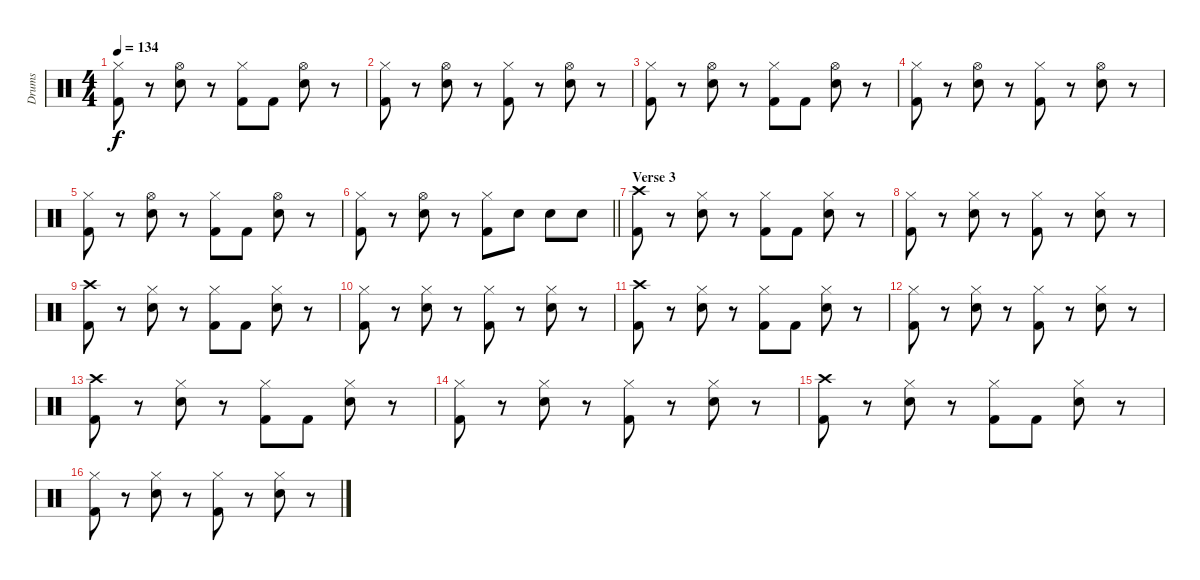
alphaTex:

\track ("Drums" "Drums") {instrument percussion}
\staff {score}
\articulation defaults
\ts (4 4)
\tempo 134
\clef neutral
\ks c
("Hi-Hat (closed)" "Kick (hit) 2").8{dy f} r.8 ("Hi-Hat (open)" "Snare (hit) 2").8 r.8 ("Hi-Hat (closed)" "Kick (hit) 2").8 "Kick (hit) 2".8 ("Hi-Hat (open)" "Snare (hit) 2").8 r.8 |
("Hi-Hat (closed)" "Kick (hit) 2").8 r.8 ("Hi-Hat (open)" "Snare (hit) 2").8 r.8 ("Hi-Hat (closed)" "Kick (hit) 2").8 r.8 ("Hi-Hat (open)" "Snare (hit) 2").8 r.8 |
("Hi-Hat (closed)" "Kick (hit) 2").8 r.8 ("Hi-Hat (open)" "Snare (hit) 2").8 r.8 ("Hi-Hat (closed)" "Kick (hit) 2").8 "Kick (hit) 2".8 ("Hi-Hat (open)" "Snare (hit) 2").8 r.8 |
("Hi-Hat (closed)" "Kick (hit) 2").8 r.8 ("Hi-Hat (open)" "Snare (hit) 2").8 r.8 ("Hi-Hat (closed)" "Kick (hit) 2").8 r.8 ("Hi-Hat (open)" "Snare (hit) 2").8 r.8 |
("Hi-Hat (closed)" "Kick (hit) 2").8 r.8 ("Hi-Hat (open)" "Snare (hit) 2").8 r.8 ("Hi-Hat (closed)" "Kick (hit) 2").8 "Kick (hit) 2".8 ("Hi-Hat (open)" "Snare (hit) 2").8 r.8 |
\barLineRight lightlight
("Hi-Hat (closed)" "Kick (hit) 2").8 r.8 ("Hi-Hat (open)" "Snare (hit) 2").8 r.8 ("Hi-Hat (closed)" "Kick (hit) 2").8 "Snare (hit) 2".8 "Snare (hit) 2".8 "Snare (hit) 2".8 |
\section ("" "Verse 3")
("Crash high (hit)" "Kick (hit) 2").8 r.8 ("Hi-Hat (closed)" "Snare (hit) 2").8 r.8 ("Hi-Hat (closed)" "Kick (hit) 2").8 "Kick (hit) 2".8 ("Hi-Hat (closed)" "Snare (hit) 2").8 r.8 |
("Hi-Hat (closed)" "Kick (hit) 2").8 r.8 ("Hi-Hat (closed)" "Snare (hit) 2").8 r.8 ("Hi-Hat (closed)" "Kick (hit) 2").8 r.8 ("Hi-Hat (closed)" "Snare (hit) 2").8 r.8 |
("Crash high (hit)" "Kick (hit) 2").8 r.8 ("Hi-Hat (closed)" "Snare (hit) 2").8 r.8 ("Hi-Hat (closed)" "Kick (hit) 2").8 "Kick (hit) 2".8 ("Hi-Hat (closed)" "Snare (hit) 2").8 r.8 |
("Hi-Hat (closed)" "Kick (hit) 2").8 r.8 ("Hi-Hat (closed)" "Snare (hit) 2").8 r.8 ("Hi-Hat (closed)" "Kick (hit) 2").8 r.8 ("Hi-Hat (closed)" "Snare (hit) 2").8 r.8 |
("Crash high (hit)" "Kick (hit) 2").8 r.8 ("Hi-Hat (closed)" "Snare (hit) 2").8 r.8 ("Hi-Hat (closed)" "Kick (hit) 2").8 "Kick (hit) 2".8 ("Hi-Hat (closed)" "Snare (hit) 2").8 r.8 |
("Hi-Hat (closed)" "Kick (hit) 2").8 r.8 ("Hi-Hat (closed)" "Snare (hit) 2").8 r.8 ("Hi-Hat (closed)" "Kick (hit) 2").8 r.8 ("Hi-Hat (closed)" "Snare (hit) 2").8 r.8 |
("Crash high (hit)" "Kick (hit) 2").8 r.8 ("Hi-Hat (closed)" "Snare (hit) 2").8 r.8 ("Hi-Hat (closed)" "Kick (hit) 2").8 "Kick (hit) 2".8 ("Hi-Hat (closed)" "Snare (hit) 2").8 r.8 |
("Hi-Hat (closed)" "Kick (hit) 2").8 r.8 ("Hi-Hat (closed)" "Snare (hit) 2").8 r.8 ("Hi-Hat (closed)" "Kick (hit) 2").8 r.8 ("Hi-Hat (closed)" "Snare (hit) 2").8 r.8 |
("Crash high (hit)" "Kick (hit) 2").8 r.8 ("Hi-Hat (closed)" "Snare (hit) 2").8 r.8 ("Hi-Hat (closed)" "Kick (hit) 2").8 "Kick (hit) 2".8 ("Hi-Hat (closed)" "Snare (hit) 2").8 r.8 |
("Hi-Hat (closed)" "Kick (hit) 2").8 r.8 ("Hi-Hat (closed)" "Snare (hit) 2").8 r.8 ("Hi-Hat (closed)" "Kick (hit) 2").8 r.8 ("Hi-Hat (closed)" "Snare (hit) 2").8 r.8
